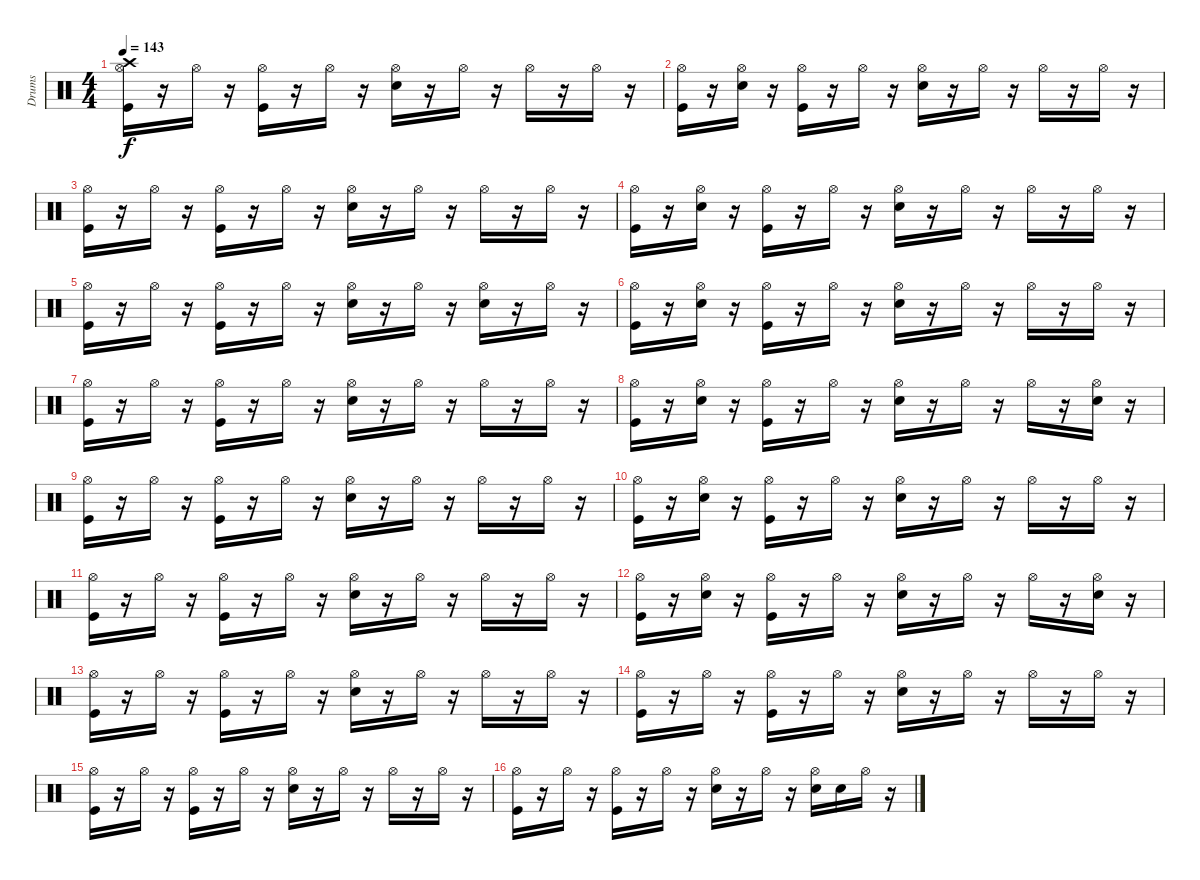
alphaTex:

\track ("Drums" "Drums") {instrument percussion}
\staff {score}
\articulation defaults
\ts (4 4)
\tempo 143
\clef neutral
\ks c
("Kick (hit)" "Hi-Hat (open)" "Crash high (hit)").16{dy f} r.16 "Hi-Hat (open)".16 r.16 ("Kick (hit)" "Hi-Hat (open)").16 r.16 "Hi-Hat (open)".16 r.16 ("Hi-Hat (open)" "Snare (hit) 2").16 r.16 "Hi-Hat (open)".16 r.16 "Hi-Hat (open)".16 r.16 "Hi-Hat (open)".16 r.16 |
("Kick (hit)" "Hi-Hat (open)").16 r.16 ("Hi-Hat (open)" "Snare (hit) 2").16 r.16 ("Kick (hit)" "Hi-Hat (open)").16 r.16 "Hi-Hat (open)".16 r.16 ("Hi-Hat (open)" "Snare (hit) 2").16 r.16 "Hi-Hat (open)".16 r.16 "Hi-Hat (open)".16 r.16 "Hi-Hat (open)".16 r.16 |
("Kick (hit)" "Hi-Hat (open)").16 r.16 "Hi-Hat (open)".16 r.16 ("Kick (hit)" "Hi-Hat (open)").16 r.16 "Hi-Hat (open)".16 r.16 ("Hi-Hat (open)" "Snare (hit) 2").16 r.16 "Hi-Hat (open)".16 r.16 "Hi-Hat (open)".16 r.16 "Hi-Hat (open)".16 r.16 |
("Kick (hit)" "Hi-Hat (open)").16 r.16 ("Hi-Hat (open)" "Snare (hit) 2").16 r.16 ("Kick (hit)" "Hi-Hat (open)").16 r.16 "Hi-Hat (open)".16 r.16 ("Hi-Hat (open)" "Snare (hit) 2").16 r.16 "Hi-Hat (open)".16 r.16 "Hi-Hat (open)".16 r.16 "Hi-Hat (open)".16 r.16 |
("Kick (hit)" "Hi-Hat (open)").16 r.16 "Hi-Hat (open)".16 r.16 ("Kick (hit)" "Hi-Hat (open)").16 r.16 "Hi-Hat (open)".16 r.16 ("Hi-Hat (open)" "Snare (hit) 2").16 r.16 "Hi-Hat (open)".16 r.16 ("Hi-Hat (open)" "Snare (hit) 2").16 r.16 "Hi-Hat (open)".16 r.16 |
("Kick (hit)" "Hi-Hat (open)").16 r.16 ("Hi-Hat (open)" "Snare (hit) 2").16 r.16 ("Kick (hit)" "Hi-Hat (open)").16 r.16 "Hi-Hat (open)".16 r.16 ("Hi-Hat (open)" "Snare (hit) 2").16 r.16 "Hi-Hat (open)".16 r.16 "Hi-Hat (open)".16 r.16 "Hi-Hat (open)".16 r.16 |
("Kick (hit)" "Hi-Hat (open)").16 r.16 "Hi-Hat (open)".16 r.16 ("Kick (hit)" "Hi-Hat (open)").16 r.16 "Hi-Hat (open)".16 r.16 ("Hi-Hat (open)" "Snare (hit) 2").16 r.16 "Hi-Hat (open)".16 r.16 "Hi-Hat (open)".16 r.16 "Hi-Hat (open)".16 r.16 |
("Kick (hit)" "Hi-Hat (open)").16 r.16 ("Hi-Hat (open)" "Snare (hit) 2").16 r.16 ("Kick (hit)" "Hi-Hat (open)").16 r.16 "Hi-Hat (open)".16 r.16 ("Hi-Hat (open)" "Snare (hit) 2").16 r.16 "Hi-Hat (open)".16 r.16 "Hi-Hat (open)".16 r.16 ("Hi-Hat (open)" "Snare (hit) 2").16 r.16 |
("Kick (hit)" "Hi-Hat (open)").16 r.16 "Hi-Hat (open)".16 r.16 ("Kick (hit)" "Hi-Hat (open)").16 r.16 "Hi-Hat (open)".16 r.16 ("Hi-Hat (open)" "Snare (hit) 2").16 r.16 "Hi-Hat (open)".16 r.16 "Hi-Hat (open)".16 r.16 "Hi-Hat (open)".16 r.16 |
("Kick (hit)" "Hi-Hat (open)").16 r.16 ("Hi-Hat (open)" "Snare (hit) 2").16 r.16 ("Kick (hit)" "Hi-Hat (open)").16 r.16 "Hi-Hat (open)".16 r.16 ("Hi-Hat (open)" "Snare (hit) 2").16 r.16 "Hi-Hat (open)".16 r.16 "Hi-Hat (open)".16 r.16 "Hi-Hat (open)".16 r.16 |
("Kick (hit)" "Hi-Hat (open)").16 r.16 "Hi-Hat (open)".16 r.16 ("Kick (hit)" "Hi-Hat (open)").16 r.16 "Hi-Hat (open)".16 r.16 ("Hi-Hat (open)" "Snare (hit) 2").16 r.16 "Hi-Hat (open)".16 r.16 "Hi-Hat (open)".16 r.16 "Hi-Hat (open)".16 r.16 |
("Kick (hit)" "Hi-Hat (open)").16 r.16 ("Hi-Hat (open)" "Snare (hit) 2").16 r.16 ("Kick (hit)" "Hi-Hat (open)").16 r.16 "Hi-Hat (open)".16 r.16 ("Hi-Hat (open)" "Snare (hit) 2").16 r.16 "Hi-Hat (open)".16 r.16 "Hi-Hat (open)".16 r.16 ("Hi-Hat (open)" "Snare (hit) 2").16 r.16 |
("Kick (hit)" "Hi-Hat (open)").16 r.16 "Hi-Hat (open)".16 r.16 ("Kick (hit)" "Hi-Hat (open)").16 r.16 "Hi-Hat (open)".16 r.16 ("Hi-Hat (open)" "Snare (hit) 2").16 r.16 "Hi-Hat (open)".16 r.16 "Hi-Hat (open)".16 r.16 "Hi-Hat (open)".16 r.16 |
("Kick (hit)" "Hi-Hat (open)").16 r.16 "Hi-Hat (open)".16 r.16 ("Kick (hit)" "Hi-Hat (open)").16 r.16 "Hi-Hat (open)".16 r.16 ("Hi-Hat (open)" "Snare (hit) 2").16 r.16 "Hi-Hat (open)".16 r.16 "Hi-Hat (open)".16 r.16 "Hi-Hat (open)".16 r.16 |
("Kick (hit)" "Hi-Hat (open)").16 r.16 "Hi-Hat (open)".16 r.16 ("Kick (hit)" "Hi-Hat (open)").16 r.16 "Hi-Hat (open)".16 r.16 ("Hi-Hat (open)" "Snare (hit) 2").16 r.16 "Hi-Hat (open)".16 r.16 "Hi-Hat (open)".16 r.16 "Hi-Hat (open)".16 r.16 |
("Kick (hit)" "Hi-Hat (open)").16 r.16 "Hi-Hat (open)".16 r.16 ("Kick (hit)" "Hi-Hat (open)").16 r.16 "Hi-Hat (open)".16 r.16 ("Hi-Hat (open)" "Snare (hit) 2").16 r.16 "Hi-Hat (open)".16 r.16 ("Hi-Hat (open)" "Snare (hit) 2").16 "Snare (hit) 2".16 "Hi-Hat (open)".16 r.16
